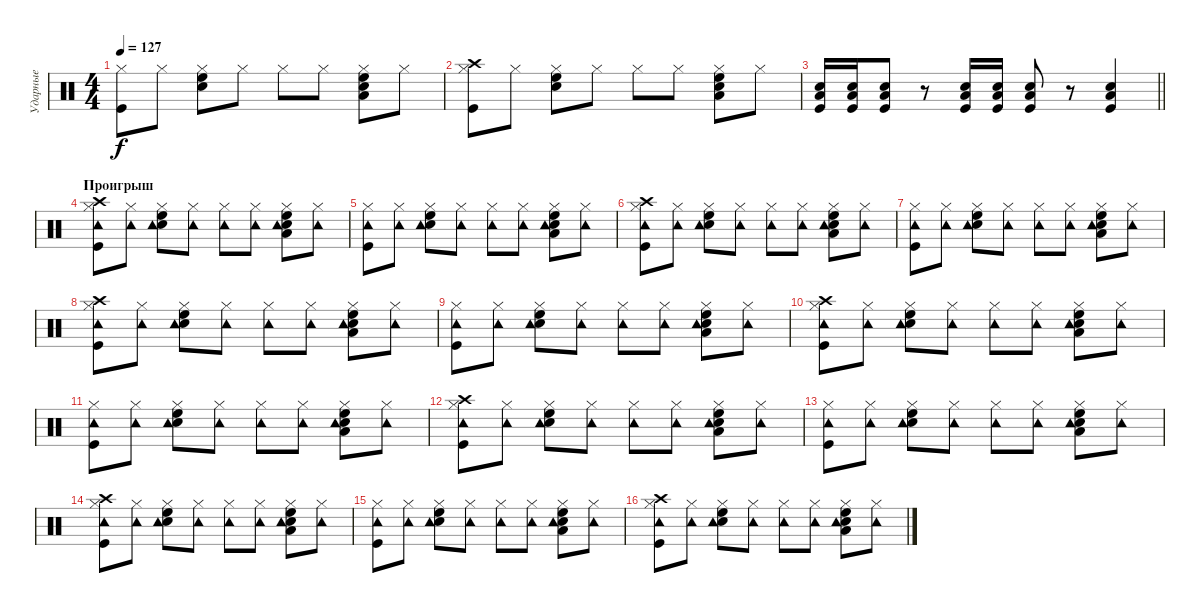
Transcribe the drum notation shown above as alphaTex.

\track ("Ударные" "Ударные") {instrument percussion}
\staff {score}
\articulation defaults
\ts (4 4)
\tempo 127
\clef neutral
\ks c
("Hi-Hat (closed)" "Kick (hit)").8{dy f} "Hi-Hat (closed)".8 ("Hi-Hat (closed)" "High Floor Tom (hit)" "Snare (hit) 2").8 "Hi-Hat (closed)".8 "Hi-Hat (closed)".8 "Hi-Hat (closed)".8 ("Hi-Hat (closed)" "High Floor Tom (hit)" "Snare (hit) 2" "Low Floor Tom (hit)").8 "Hi-Hat (closed)".8 |
("Hi-Hat (closed)" "Crash high (hit)" "Kick (hit)").8 "Hi-Hat (closed)".8 ("Hi-Hat (closed)" "High Floor Tom (hit)" "Snare (hit) 2").8 "Hi-Hat (closed)".8 "Hi-Hat (closed)".8 "Hi-Hat (closed)".8 ("Hi-Hat (closed)" "High Floor Tom (hit)" "Snare (hit) 2" "Low Floor Tom (hit)").8 "Hi-Hat (closed)".8 |
\barLineRight lightlight
("Kick (hit)" "Snare (hit) 2" "Low Floor Tom (hit)").16 ("Kick (hit)" "Snare (hit) 2" "Low Floor Tom (hit)").16 ("Kick (hit)" "Snare (hit) 2" "Low Floor Tom (hit)").8 r.8 ("Kick (hit)" "Snare (hit) 2" "Low Floor Tom (hit)").16 ("Kick (hit)" "Snare (hit) 2" "Low Floor Tom (hit)").16 ("Kick (hit)" "Snare (hit) 2" "Low Floor Tom (hit)").8 r.8 ("Kick (hit)" "Snare (hit) 2" "Low Floor Tom (hit)").4 |
\section ("" "Проигрыш")
("Hi-Hat (closed)" "Crash high (hit)" "Kick (hit)" "Tambourine (hit)").8 ("Hi-Hat (closed)" "Tambourine (hit)").8 ("Hi-Hat (closed)" "High Floor Tom (hit)" "Snare (hit) 2" "Tambourine (hit)").8 ("Hi-Hat (closed)" "Tambourine (hit)").8 ("Hi-Hat (closed)" "Tambourine (hit)").8 ("Hi-Hat (closed)" "Tambourine (hit)").8 ("Hi-Hat (closed)" "High Floor Tom (hit)" "Snare (hit) 2" "Low Floor Tom (hit)" "Tambourine (hit)").8 ("Hi-Hat (closed)" "Tambourine (hit)").8 |
("Hi-Hat (closed)" "Kick (hit)" "Tambourine (hit)").8 ("Hi-Hat (closed)" "Tambourine (hit)").8 ("Hi-Hat (closed)" "High Floor Tom (hit)" "Snare (hit) 2" "Tambourine (hit)").8 ("Hi-Hat (closed)" "Tambourine (hit)").8 ("Hi-Hat (closed)" "Tambourine (hit)").8 ("Hi-Hat (closed)" "Tambourine (hit)").8 ("Hi-Hat (closed)" "High Floor Tom (hit)" "Snare (hit) 2" "Low Floor Tom (hit)" "Tambourine (hit)").8 ("Hi-Hat (closed)" "Tambourine (hit)").8 |
("Hi-Hat (closed)" "Crash high (hit)" "Kick (hit)" "Tambourine (hit)").8 ("Hi-Hat (closed)" "Tambourine (hit)").8 ("Hi-Hat (closed)" "High Floor Tom (hit)" "Snare (hit) 2" "Tambourine (hit)").8 ("Hi-Hat (closed)" "Tambourine (hit)").8 ("Hi-Hat (closed)" "Tambourine (hit)").8 ("Hi-Hat (closed)" "Tambourine (hit)").8 ("Hi-Hat (closed)" "High Floor Tom (hit)" "Snare (hit) 2" "Low Floor Tom (hit)" "Tambourine (hit)").8 ("Hi-Hat (closed)" "Tambourine (hit)").8 |
("Hi-Hat (closed)" "Kick (hit)" "Tambourine (hit)").8 ("Hi-Hat (closed)" "Tambourine (hit)").8 ("Hi-Hat (closed)" "High Floor Tom (hit)" "Snare (hit) 2" "Tambourine (hit)").8 ("Hi-Hat (closed)" "Tambourine (hit)").8 ("Hi-Hat (closed)" "Tambourine (hit)").8 ("Hi-Hat (closed)" "Tambourine (hit)").8 ("Hi-Hat (closed)" "High Floor Tom (hit)" "Snare (hit) 2" "Low Floor Tom (hit)" "Tambourine (hit)").8 ("Hi-Hat (closed)" "Tambourine (hit)").8 |
("Hi-Hat (closed)" "Crash high (hit)" "Kick (hit)" "Tambourine (hit)").8 ("Hi-Hat (closed)" "Tambourine (hit)").8 ("Hi-Hat (closed)" "High Floor Tom (hit)" "Snare (hit) 2" "Tambourine (hit)").8 ("Hi-Hat (closed)" "Tambourine (hit)").8 ("Hi-Hat (closed)" "Tambourine (hit)").8 ("Hi-Hat (closed)" "Tambourine (hit)").8 ("Hi-Hat (closed)" "High Floor Tom (hit)" "Snare (hit) 2" "Low Floor Tom (hit)" "Tambourine (hit)").8 ("Hi-Hat (closed)" "Tambourine (hit)").8 |
("Hi-Hat (closed)" "Kick (hit)" "Tambourine (hit)").8 ("Hi-Hat (closed)" "Tambourine (hit)").8 ("Hi-Hat (closed)" "High Floor Tom (hit)" "Snare (hit) 2" "Tambourine (hit)").8 ("Hi-Hat (closed)" "Tambourine (hit)").8 ("Hi-Hat (closed)" "Tambourine (hit)").8 ("Hi-Hat (closed)" "Tambourine (hit)").8 ("Hi-Hat (closed)" "High Floor Tom (hit)" "Snare (hit) 2" "Low Floor Tom (hit)" "Tambourine (hit)").8 ("Hi-Hat (closed)" "Tambourine (hit)").8 |
("Hi-Hat (closed)" "Crash high (hit)" "Kick (hit)" "Tambourine (hit)").8 ("Hi-Hat (closed)" "Tambourine (hit)").8 ("Hi-Hat (closed)" "High Floor Tom (hit)" "Snare (hit) 2" "Tambourine (hit)").8 ("Hi-Hat (closed)" "Tambourine (hit)").8 ("Hi-Hat (closed)" "Tambourine (hit)").8 ("Hi-Hat (closed)" "Tambourine (hit)").8 ("Hi-Hat (closed)" "High Floor Tom (hit)" "Snare (hit) 2" "Low Floor Tom (hit)" "Tambourine (hit)").8 ("Hi-Hat (closed)" "Tambourine (hit)").8 |
("Hi-Hat (closed)" "Kick (hit)" "Tambourine (hit)").8 ("Hi-Hat (closed)" "Tambourine (hit)").8 ("Hi-Hat (closed)" "High Floor Tom (hit)" "Snare (hit) 2" "Tambourine (hit)").8 ("Hi-Hat (closed)" "Tambourine (hit)").8 ("Hi-Hat (closed)" "Tambourine (hit)").8 ("Hi-Hat (closed)" "Tambourine (hit)").8 ("Hi-Hat (closed)" "High Floor Tom (hit)" "Snare (hit) 2" "Low Floor Tom (hit)" "Tambourine (hit)").8 ("Hi-Hat (closed)" "Tambourine (hit)").8 |
("Hi-Hat (closed)" "Crash high (hit)" "Kick (hit)" "Tambourine (hit)").8 ("Hi-Hat (closed)" "Tambourine (hit)").8 ("Hi-Hat (closed)" "High Floor Tom (hit)" "Snare (hit) 2" "Tambourine (hit)").8 ("Hi-Hat (closed)" "Tambourine (hit)").8 ("Hi-Hat (closed)" "Tambourine (hit)").8 ("Hi-Hat (closed)" "Tambourine (hit)").8 ("Hi-Hat (closed)" "High Floor Tom (hit)" "Snare (hit) 2" "Low Floor Tom (hit)" "Tambourine (hit)").8 ("Hi-Hat (closed)" "Tambourine (hit)").8 |
("Hi-Hat (closed)" "Kick (hit)" "Tambourine (hit)").8 ("Hi-Hat (closed)" "Tambourine (hit)").8 ("Hi-Hat (closed)" "High Floor Tom (hit)" "Snare (hit) 2" "Tambourine (hit)").8 ("Hi-Hat (closed)" "Tambourine (hit)").8 ("Hi-Hat (closed)" "Tambourine (hit)").8 ("Hi-Hat (closed)" "Tambourine (hit)").8 ("Hi-Hat (closed)" "High Floor Tom (hit)" "Snare (hit) 2" "Low Floor Tom (hit)" "Tambourine (hit)").8 ("Hi-Hat (closed)" "Tambourine (hit)").8 |
("Hi-Hat (closed)" "Crash high (hit)" "Kick (hit)" "Tambourine (hit)").8 ("Hi-Hat (closed)" "Tambourine (hit)").8 ("Hi-Hat (closed)" "High Floor Tom (hit)" "Snare (hit) 2" "Tambourine (hit)").8 ("Hi-Hat (closed)" "Tambourine (hit)").8 ("Hi-Hat (closed)" "Tambourine (hit)").8 ("Hi-Hat (closed)" "Tambourine (hit)").8 ("Hi-Hat (closed)" "High Floor Tom (hit)" "Snare (hit) 2" "Low Floor Tom (hit)" "Tambourine (hit)").8 ("Hi-Hat (closed)" "Tambourine (hit)").8 |
("Hi-Hat (closed)" "Kick (hit)" "Tambourine (hit)").8 ("Hi-Hat (closed)" "Tambourine (hit)").8 ("Hi-Hat (closed)" "High Floor Tom (hit)" "Snare (hit) 2" "Tambourine (hit)").8 ("Hi-Hat (closed)" "Tambourine (hit)").8 ("Hi-Hat (closed)" "Tambourine (hit)").8 ("Hi-Hat (closed)" "Tambourine (hit)").8 ("Hi-Hat (closed)" "High Floor Tom (hit)" "Snare (hit) 2" "Low Floor Tom (hit)" "Tambourine (hit)").8 ("Hi-Hat (closed)" "Tambourine (hit)").8 |
("Hi-Hat (closed)" "Crash high (hit)" "Kick (hit)" "Tambourine (hit)").8 ("Hi-Hat (closed)" "Tambourine (hit)").8 ("Hi-Hat (closed)" "High Floor Tom (hit)" "Snare (hit) 2" "Tambourine (hit)").8 ("Hi-Hat (closed)" "Tambourine (hit)").8 ("Hi-Hat (closed)" "Tambourine (hit)").8 ("Hi-Hat (closed)" "Tambourine (hit)").8 ("Hi-Hat (closed)" "High Floor Tom (hit)" "Snare (hit) 2" "Low Floor Tom (hit)" "Tambourine (hit)").8 ("Hi-Hat (closed)" "Tambourine (hit)").8
